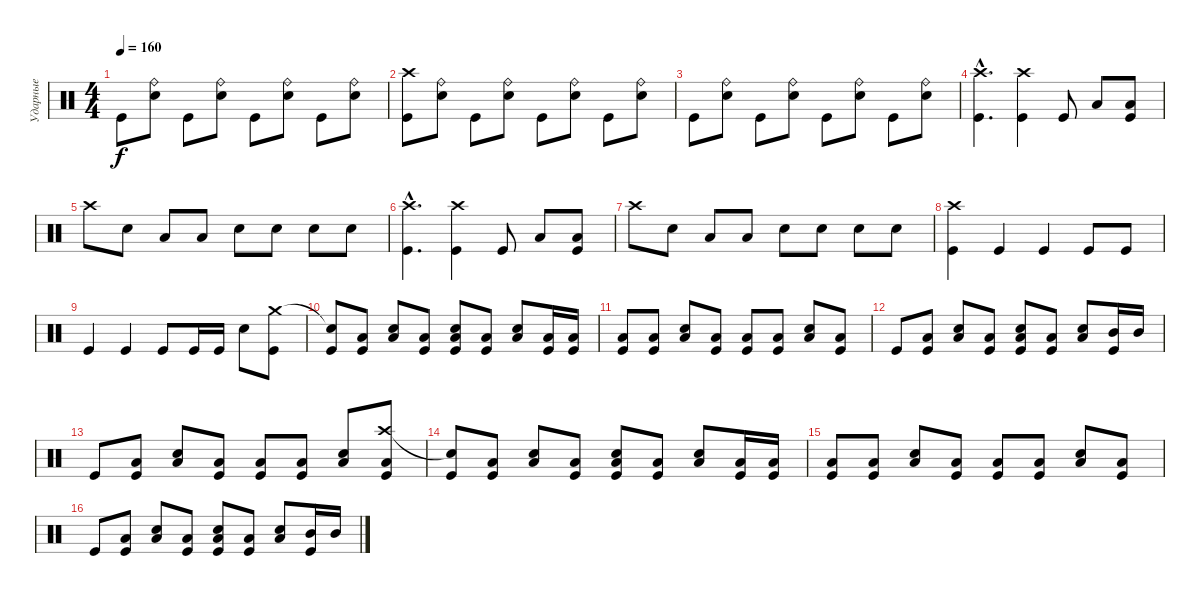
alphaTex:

\track ("Ударные" "Ударные") {instrument percussion}
\staff {score}
\articulation defaults
\ts (4 4)
\tempo 160
\clef neutral
\ks c "Kick (hit)".8{dy f}
("Ride (bell)" "Electric Snare (hit)").8 "Kick (hit)".8 ("Ride (bell)" "Electric Snare (hit)").8 "Kick (hit)".8 ("Ride (bell)" "Electric Snare (hit)").8 "Kick (hit)".8 ("Ride (bell)" "Electric Snare (hit)").8 |
("Crash high (hit)" "Kick (hit)").8 ("Ride (bell)" "Electric Snare (hit)").8 "Kick (hit)".8 ("Ride (bell)" "Electric Snare (hit)").8 "Kick (hit)".8 ("Ride (bell)" "Electric Snare (hit)").8 "Kick (hit)".8 ("Ride (bell)" "Electric Snare (hit)").8 |
"Kick (hit)".8 ("Ride (bell)" "Electric Snare (hit)").8 "Kick (hit)".8 ("Ride (bell)" "Electric Snare (hit)").8 "Kick (hit)".8 ("Ride (bell)" "Electric Snare (hit)").8 "Kick (hit)".8 ("Ride (bell)" "Electric Snare (hit)").8 |
("Crash high (hit)"{hac} "Kick (hit)"{hac}).4{d} ("Crash high (hit)" "Kick (hit)").4 "Kick (hit)".8 "Low Tom (hit)".8 ("Low Tom (hit)" "Kick (hit)").8 |
"Crash high (hit)".8 "Electric Snare (hit)".8 "Low Tom (hit)".8 "Low Tom (hit)".8 "Electric Snare (hit)".8 "Electric Snare (hit)".8 "Electric Snare (hit)".8 "Electric Snare (hit)".8 |
("Crash high (hit)"{hac} "Kick (hit)"{hac}).4{d} ("Crash high (hit)" "Kick (hit)").4 "Kick (hit)".8 "Low Tom (hit)".8 ("Low Tom (hit)" "Kick (hit)").8 |
"Crash high (hit)".8 "Electric Snare (hit)".8 "Low Tom (hit)".8 "Low Tom (hit)".8 "Electric Snare (hit)".8 "Electric Snare (hit)".8 "Electric Snare (hit)".8 "Electric Snare (hit)".8 |
("Crash high (hit)" "Kick (hit)").4 "Kick (hit)".4 "Kick (hit)".4 "Kick (hit)".8 "Kick (hit)".8 |
"Kick (hit)".4 "Kick (hit)".4 "Kick (hit)".8 "Kick (hit)".16 "Kick (hit)".16 "Electric Snare (hit)".8 ("Crash medium (hit)" "Kick (hit)").8 |
("Snare (hit)"{t} "Kick (hit)").8 ("Low Tom (hit)" "Kick (hit)").8 ("Low Tom (hit)" "Electric Snare (hit)").8 ("Low Tom (hit)" "Kick (hit)").8 ("Low Tom (hit)" "Electric Snare (hit)" "Kick (hit)").8 ("Low Tom (hit)" "Kick (hit)").8 ("Low Tom (hit)" "Electric Snare (hit)").8 ("Low Tom (hit)" "Kick (hit)").16 ("Low Tom (hit)" "Kick (hit)").16 |
("Low Tom (hit)" "Kick (hit)").8 ("Low Tom (hit)" "Kick (hit)").8 ("Low Tom (hit)" "Electric Snare (hit)").8 ("Low Tom (hit)" "Kick (hit)").8 ("Low Tom (hit)" "Kick (hit)").8 ("Low Tom (hit)" "Kick (hit)").8 ("Low Tom (hit)" "Electric Snare (hit)").8 ("Low Tom (hit)" "Kick (hit)").8 |
"Kick (hit)".8 ("Low Tom (hit)" "Kick (hit)").8 ("Low Tom (hit)" "Electric Snare (hit)").8 ("Low Tom (hit)" "Kick (hit)").8 ("Low Tom (hit)" "Electric Snare (hit)" "Kick (hit)").8 ("Low Tom (hit)" "Kick (hit)").8 ("Low Tom (hit)" "Electric Snare (hit)").8 ("Mid Tom (hit)" "Kick (hit)").16 "Mid Tom (hit)".16 |
"Kick (hit)".8 ("Low Tom (hit)" "Kick (hit)").8 ("Low Tom (hit)" "Electric Snare (hit)").8 ("Low Tom (hit)" "Kick (hit)").8 ("Low Tom (hit)" "Kick (hit)").8 ("Low Tom (hit)" "Kick (hit)").8 ("Low Tom (hit)" "Electric Snare (hit)").8 ("Crash high (hit)" "Low Tom (hit)" "Kick (hit)").8 |
("Snare (hit)"{t} "Kick (hit)").8 ("Low Tom (hit)" "Kick (hit)").8 ("Low Tom (hit)" "Electric Snare (hit)").8 ("Low Tom (hit)" "Kick (hit)").8 ("Low Tom (hit)" "Electric Snare (hit)" "Kick (hit)").8 ("Low Tom (hit)" "Kick (hit)").8 ("Low Tom (hit)" "Electric Snare (hit)").8 ("Low Tom (hit)" "Kick (hit)").16 ("Low Tom (hit)" "Kick (hit)").16 |
("Low Tom (hit)" "Kick (hit)").8 ("Low Tom (hit)" "Kick (hit)").8 ("Low Tom (hit)" "Electric Snare (hit)").8 ("Low Tom (hit)" "Kick (hit)").8 ("Low Tom (hit)" "Kick (hit)").8 ("Low Tom (hit)" "Kick (hit)").8 ("Low Tom (hit)" "Electric Snare (hit)").8 ("Low Tom (hit)" "Kick (hit)").8 |
"Kick (hit)".8 ("Low Tom (hit)" "Kick (hit)").8 ("Low Tom (hit)" "Electric Snare (hit)").8 ("Low Tom (hit)" "Kick (hit)").8 ("Low Tom (hit)" "Electric Snare (hit)" "Kick (hit)").8 ("Low Tom (hit)" "Kick (hit)").8 ("Low Tom (hit)" "Electric Snare (hit)").8 ("Mid Tom (hit)" "Kick (hit)").16 "Mid Tom (hit)".16
